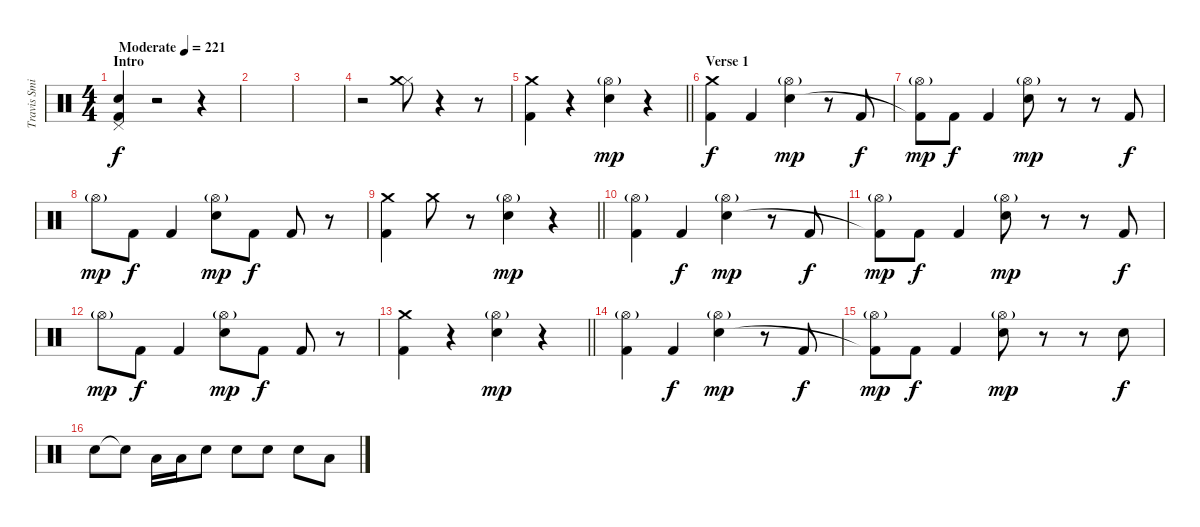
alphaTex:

\track ("Travis Smith" "Travis Smi") {instrument percussion}
\staff {score}
\articulation defaults
\ts (4 4)
\section ("" "Intro")
\tempo (221 "Moderate")
\clef neutral
\ks c
("Pedal Hi-Hat (hit)" "Kick (hit) 2" "Electric Snare (hit)").4{dy f} r.2 r.4 |
|
|
r.2 ("Hi-Hat (closed)" "Crash medium (hit)").8 r.4 r.8 |
\barLineRight lightlight
("Crash medium (hit)" "Kick (hit) 2").4 r.4 ("Hi-Hat (open)"{g} "Electric Snare (hit)").4{dy mp} r.4 |
\section ("" "Verse 1")
("Crash medium (hit)" "Kick (hit) 2").4{dy f} "Kick (hit) 2".4 ("Hi-Hat (open)"{g} "Electric Snare (hit)").4{dy mp} r.8 "Kick (hit) 2".8{dy f} |
("Hi-Hat (open)"{g} "Kick (hit) 2"{t}).8{dy mp} "Kick (hit) 2".8{dy f} "Kick (hit) 2".4 ("Hi-Hat (open)"{g} "Electric Snare (hit)").8{dy mp} r.8 r.8 "Kick (hit) 2".8{dy f} |
"Hi-Hat (open)"{g}.8{dy mp} "Kick (hit) 2".8{dy f} "Kick (hit) 2".4 ("Hi-Hat (open)"{g} "Electric Snare (hit)").8{dy mp} "Kick (hit) 2".8{dy f} "Kick (hit) 2".8 r.8 |
\barLineRight lightlight
("Crash medium (hit)" "Kick (hit) 2").4 "Crash medium (hit)".8 r.8 ("Hi-Hat (open)"{g} "Electric Snare (hit)").4{dy mp} r.4 |
("Hi-Hat (open)"{g} "Kick (hit) 2").4 "Kick (hit) 2".4{dy f} ("Hi-Hat (open)"{g} "Electric Snare (hit)").4{dy mp} r.8 "Kick (hit) 2".8{dy f} |
("Hi-Hat (open)"{g} "Kick (hit) 2"{t}).8{dy mp} "Kick (hit) 2".8{dy f} "Kick (hit) 2".4 ("Hi-Hat (open)"{g} "Electric Snare (hit)").8{dy mp} r.8 r.8 "Kick (hit) 2".8{dy f} |
"Hi-Hat (open)"{g}.8{dy mp} "Kick (hit) 2".8{dy f} "Kick (hit) 2".4 ("Hi-Hat (open)"{g} "Electric Snare (hit)").8{dy mp} "Kick (hit) 2".8{dy f} "Kick (hit) 2".8 r.8 |
\barLineRight lightlight
("Crash medium (hit)" "Kick (hit) 2").4 r.4 ("Hi-Hat (open)"{g} "Electric Snare (hit)").4{dy mp} r.4 |
("Hi-Hat (open)"{g} "Kick (hit) 2").4 "Kick (hit) 2".4{dy f} ("Hi-Hat (open)"{g} "Electric Snare (hit)").4{dy mp} r.8 "Kick (hit) 2".8{dy f} |
("Hi-Hat (open)"{g} "Kick (hit) 2"{t}).8{dy mp} "Kick (hit) 2".8{dy f} "Kick (hit) 2".4 ("Hi-Hat (open)"{g} "Electric Snare (hit)").8{dy mp} r.8 r.8 "Electric Snare (hit)".8{dy f} |
"Electric Snare (hit)".8 "Electric Snare (hit)"{t}.8 "Low Floor Tom (hit)".16 "Low Floor Tom (hit)".16 "Electric Snare (hit)".8 "Electric Snare (hit)".8 "Electric Snare (hit)".8 "Electric Snare (hit)".8 "Low Tom (hit)".8
